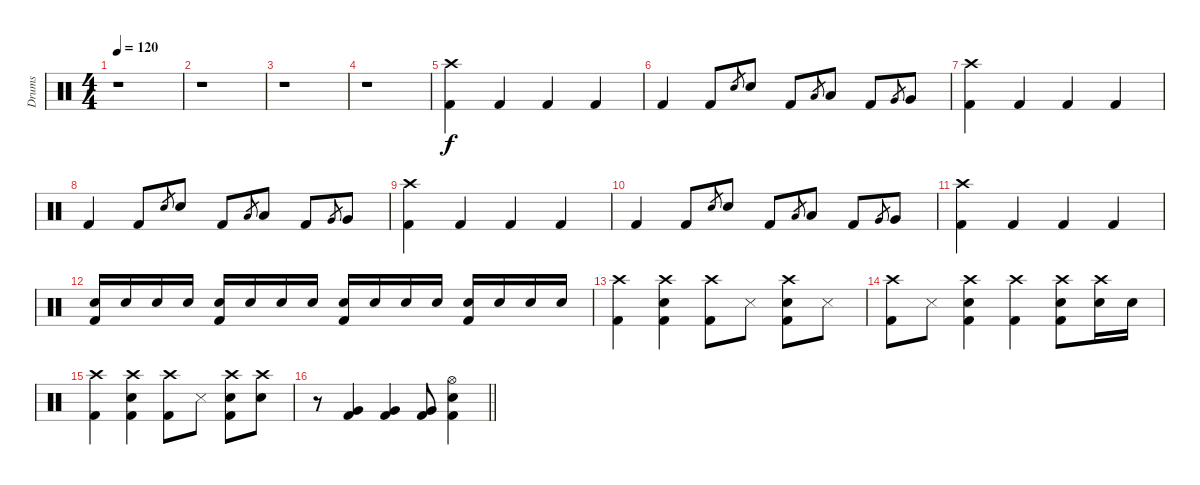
\track ("Drums" "Drums") {instrument percussion}
\staff {score}
\articulation defaults
\ts (4 4)
\tempo 120
\clef neutral
\ks c
r.1{dy f} |
r.1 |
r.1 |
r.1 |
("Crash high (hit)" "Kick (hit) 2").4 "Kick (hit) 2".4 "Kick (hit) 2".4 "Kick (hit) 2".4 |
"Kick (hit) 2".4 "Kick (hit) 2".8 "Snare (hit) 2".8{gr} "Snare (hit) 2".8 "Kick (hit) 2".8 "Low Tom (hit)".8{gr} "Low Tom (hit)".8 "Kick (hit) 2".8 "Very Low Tom (hit)".8{gr} "Very Low Tom (hit)".8 |
("Crash high (hit)" "Kick (hit) 2").4 "Kick (hit) 2".4 "Kick (hit) 2".4 "Kick (hit) 2".4 |
"Kick (hit) 2".4 "Kick (hit) 2".8 "Snare (hit) 2".8{gr} "Snare (hit) 2".8 "Kick (hit) 2".8 "Low Tom (hit)".8{gr} "Low Tom (hit)".8 "Kick (hit) 2".8 "Very Low Tom (hit)".8{gr} "Very Low Tom (hit)".8 |
("Crash high (hit)" "Kick (hit) 2").4 "Kick (hit) 2".4 "Kick (hit) 2".4 "Kick (hit) 2".4 |
"Kick (hit) 2".4 "Kick (hit) 2".8 "Snare (hit) 2".8{gr} "Snare (hit) 2".8 "Kick (hit) 2".8 "Low Tom (hit)".8{gr} "Low Tom (hit)".8 "Kick (hit) 2".8 "Very Low Tom (hit)".8{gr} "Very Low Tom (hit)".8 |
("Crash high (hit)" "Kick (hit) 2").4 "Kick (hit) 2".4 "Kick (hit) 2".4 "Kick (hit) 2".4 |
("Snare (hit) 2" "Kick (hit) 2").16{volume 5} "Snare (hit) 2".16{volume 13} "Snare (hit) 2".16 "Snare (hit) 2".16 ("Snare (hit) 2" "Kick (hit) 2").16 "Snare (hit) 2".16 "Snare (hit) 2".16 "Snare (hit) 2".16 ("Snare (hit) 2" "Kick (hit) 2").16 "Snare (hit) 2".16 "Snare (hit) 2".16 "Snare (hit) 2".16 ("Snare (hit) 2" "Kick (hit) 2").16 "Snare (hit) 2".16 "Snare (hit) 2".16 "Snare (hit) 2".16 |
("Crash high (hit)" "Kick (hit) 2").4 ("Crash high (hit)" "Snare (hit) 2" "Kick (hit) 2").4 ("Crash high (hit)" "Kick (hit) 2").8 "Snare (side stick) 3".8 ("Crash high (hit)" "Snare (hit) 2" "Kick (hit) 2").8 "Snare (side stick) 3".8 |
("Crash high (hit)" "Kick (hit) 2").8 "Snare (side stick) 3".8 ("Crash high (hit)" "Snare (hit) 2" "Kick (hit) 2").4 ("Crash high (hit)" "Kick (hit) 2").4 ("Crash high (hit)" "Snare (hit) 2" "Kick (hit) 2").8 ("Crash high (hit)" "Snare (hit) 2").16 "Snare (hit) 2".16 |
("Crash high (hit)" "Kick (hit) 2").4 ("Crash high (hit)" "Snare (hit) 2" "Kick (hit) 2").4 ("Crash high (hit)" "Kick (hit) 2").8 "Snare (side stick) 3".8 ("Crash high (hit)" "Snare (hit) 2" "Kick (hit) 2").8 ("Crash high (hit)" "Snare (hit) 2").8 |
\barLineRight lightlight
r.8 ("Very Low Tom (hit)" "Kick (hit) 2").4 ("Very Low Tom (hit)" "Kick (hit) 2").4 ("Very Low Tom (hit)" "Kick (hit) 2").8 ("Hi-Hat (open)" "Snare (hit) 2" "Kick (hit) 2").4
